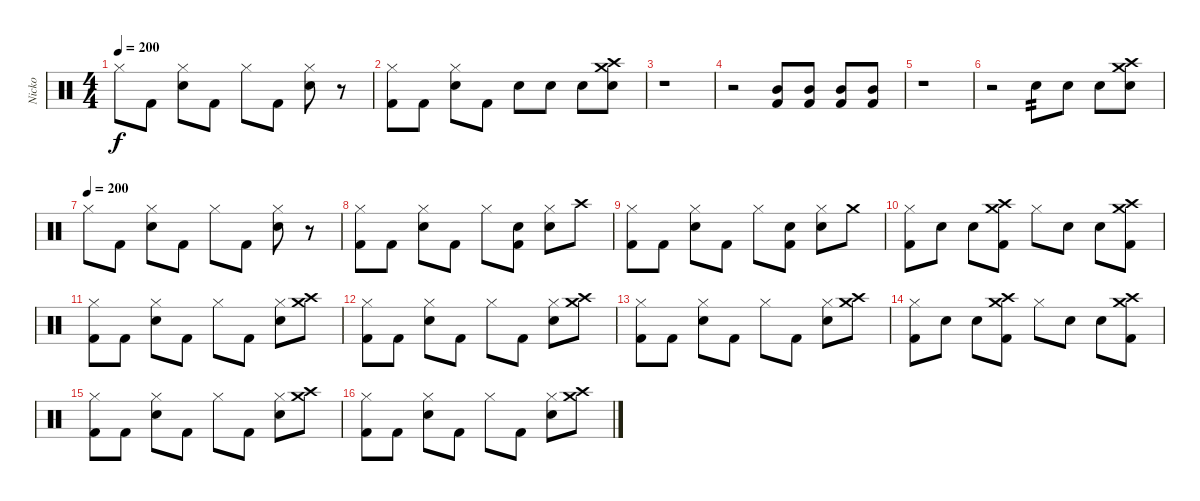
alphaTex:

\track ("Nicko" "Nicko") {instrument percussion}
\staff {score}
\articulation defaults
\ts (4 4)
\tempo 200
\clef neutral
\ks c "Hi-Hat (closed)".8{dy f} "Kick (hit) 2".8
("Hi-Hat (closed)" "Electric Snare (hit)").8 "Kick (hit) 2".8 "Hi-Hat (closed)".8 "Kick (hit) 2".8 ("Hi-Hat (closed)" "Electric Snare (hit)").8 r.8 |
("Hi-Hat (closed)" "Kick (hit) 2").8 "Kick (hit) 2".8 ("Hi-Hat (closed)" "Electric Snare (hit)").8 "Kick (hit) 2".8 "Electric Snare (hit)".8 "Electric Snare (hit)".8 "Electric Snare (hit)".8 ("Crash high (hit)" "Crash medium (hit)" "Electric Snare (hit)").8 |
r.1 |
r.2 ("Mid Tom (hit)" "Kick (hit) 2").8 ("Mid Tom (hit)" "Kick (hit) 2").8 ("Mid Tom (hit)" "Kick (hit) 2").8 ("Mid Tom (hit)" "Kick (hit) 2").8 |
r.1 |
r.2 "Electric Snare (hit)".8{tp 2} "Electric Snare (hit)".8 "Electric Snare (hit)".8 ("Crash high (hit)" "Crash medium (hit)" "Electric Snare (hit)").8 |
\tempo (200)
"Hi-Hat (closed)".8 "Kick (hit) 2".8 ("Hi-Hat (closed)" "Electric Snare (hit)").8 "Kick (hit) 2".8 "Hi-Hat (closed)".8 "Kick (hit) 2".8 ("Hi-Hat (closed)" "Electric Snare (hit)").8 r.8 |
("Hi-Hat (closed)" "Kick (hit) 2").8 "Kick (hit) 2".8 ("Hi-Hat (closed)" "Electric Snare (hit)").8 "Kick (hit) 2".8 "Hi-Hat (closed)".8 ("Electric Snare (hit)" "Kick (hit) 2").8 ("Hi-Hat (closed)" "Electric Snare (hit)").8 "Crash high (hit)".8 |
("Hi-Hat (closed)" "Kick (hit) 2").8 "Kick (hit) 2".8 ("Hi-Hat (closed)" "Electric Snare (hit)").8 "Kick (hit) 2".8 "Hi-Hat (closed)".8 ("Electric Snare (hit)" "Kick (hit) 2").8 ("Hi-Hat (closed)" "Electric Snare (hit)").8 "Crash medium (hit)".8 |
("Hi-Hat (closed)" "Kick (hit) 2").8 "Electric Snare (hit)".8 "Electric Snare (hit)".8 ("Crash high (hit)" "Crash medium (hit)" "Kick (hit) 2").8 "Hi-Hat (closed)".8 "Electric Snare (hit)".8 "Electric Snare (hit)".8 ("Crash high (hit)" "Crash medium (hit)" "Kick (hit) 2").8 |
("Hi-Hat (closed)" "Kick (hit) 2").8 "Kick (hit) 2".8 ("Hi-Hat (closed)" "Electric Snare (hit)").8 "Kick (hit) 2".8 "Hi-Hat (closed)".8 "Kick (hit) 2".8 ("Hi-Hat (closed)" "Electric Snare (hit)").8 ("Crash medium (hit)" "Crash high (hit)").8 |
("Hi-Hat (closed)" "Kick (hit) 2").8 "Kick (hit) 2".8 ("Hi-Hat (closed)" "Electric Snare (hit)").8 "Kick (hit) 2".8 "Hi-Hat (closed)".8 "Kick (hit) 2".8 ("Hi-Hat (closed)" "Electric Snare (hit)").8 ("Crash medium (hit)" "Crash high (hit)").8 |
("Hi-Hat (closed)" "Kick (hit) 2").8 "Kick (hit) 2".8 ("Hi-Hat (closed)" "Electric Snare (hit)").8 "Kick (hit) 2".8 "Hi-Hat (closed)".8 "Kick (hit) 2".8 ("Hi-Hat (closed)" "Electric Snare (hit)").8 ("Crash medium (hit)" "Crash high (hit)").8 |
("Hi-Hat (closed)" "Kick (hit) 2").8 "Electric Snare (hit)".8 "Electric Snare (hit)".8 ("Crash high (hit)" "Crash medium (hit)" "Kick (hit) 2").8 "Hi-Hat (closed)".8 "Electric Snare (hit)".8 "Electric Snare (hit)".8 ("Crash high (hit)" "Crash medium (hit)" "Kick (hit) 2").8 |
("Hi-Hat (closed)" "Kick (hit) 2").8 "Kick (hit) 2".8 ("Hi-Hat (closed)" "Electric Snare (hit)").8 "Kick (hit) 2".8 "Hi-Hat (closed)".8 "Kick (hit) 2".8 ("Hi-Hat (closed)" "Electric Snare (hit)").8 ("Crash medium (hit)" "Crash high (hit)").8 |
("Hi-Hat (closed)" "Kick (hit) 2").8 "Kick (hit) 2".8 ("Hi-Hat (closed)" "Electric Snare (hit)").8 "Kick (hit) 2".8 "Hi-Hat (closed)".8 "Kick (hit) 2".8 ("Hi-Hat (closed)" "Electric Snare (hit)").8 ("Crash medium (hit)" "Crash high (hit)").8
